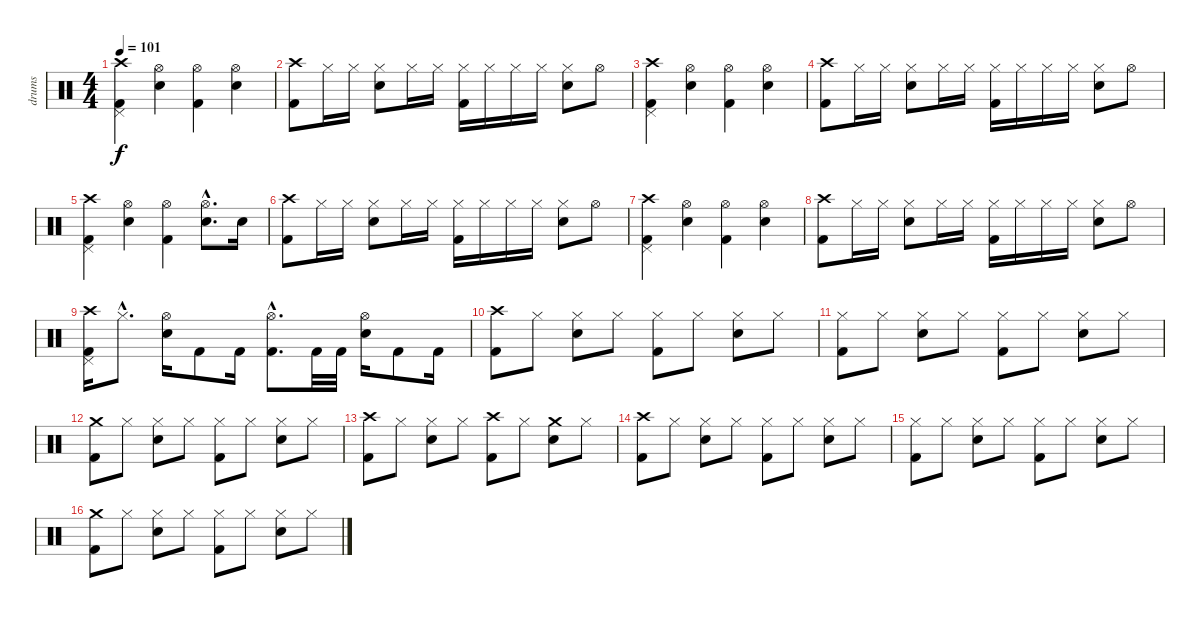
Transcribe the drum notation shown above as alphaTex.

\track ("drums" "drums") {instrument percussion}
\staff {score}
\articulation defaults
\ts (4 4)
\tempo 101
\clef neutral
\ks c
("Crash high (hit)" "Pedal Hi-Hat (hit)" "Kick (hit) 2").4{dy f} ("Hi-Hat (open)" "Electric Snare (hit)").4 ("Hi-Hat (open)" "Kick (hit) 2").4 ("Hi-Hat (open)" "Electric Snare (hit)").4 |
("Crash high (hit)" "Kick (hit) 2").8 "Hi-Hat (closed)".16 "Hi-Hat (closed)".16 ("Hi-Hat (closed)" "Electric Snare (hit)").8 "Hi-Hat (closed)".16 "Hi-Hat (closed)".16 ("Hi-Hat (closed)" "Kick (hit) 2").16 "Hi-Hat (closed)".16 "Hi-Hat (closed)".16 "Hi-Hat (closed)".16 ("Hi-Hat (closed)" "Electric Snare (hit)").8 "Hi-Hat (open)".8 |
("Crash high (hit)" "Pedal Hi-Hat (hit)" "Kick (hit) 2").4 ("Hi-Hat (open)" "Electric Snare (hit)").4 ("Hi-Hat (open)" "Kick (hit) 2").4 ("Hi-Hat (open)" "Electric Snare (hit)").4 |
("Crash high (hit)" "Kick (hit) 2").8 "Hi-Hat (closed)".16 "Hi-Hat (closed)".16 ("Hi-Hat (closed)" "Electric Snare (hit)").8 "Hi-Hat (closed)".16 "Hi-Hat (closed)".16 ("Hi-Hat (closed)" "Kick (hit) 2").16 "Hi-Hat (closed)".16 "Hi-Hat (closed)".16 "Hi-Hat (closed)".16 ("Hi-Hat (closed)" "Electric Snare (hit)").8 "Hi-Hat (open)".8 |
("Crash high (hit)" "Pedal Hi-Hat (hit)" "Kick (hit) 2").4 ("Hi-Hat (open)" "Electric Snare (hit)").4 ("Hi-Hat (open)" "Kick (hit) 2").4 ("Hi-Hat (open)"{hac} "Electric Snare (hit)"{hac}).8{d} "Electric Snare (hit)".16 |
("Crash high (hit)" "Kick (hit) 2").8 "Hi-Hat (closed)".16 "Hi-Hat (closed)".16 ("Hi-Hat (closed)" "Electric Snare (hit)").8 "Hi-Hat (closed)".16 "Hi-Hat (closed)".16 ("Hi-Hat (closed)" "Kick (hit) 2").16 "Hi-Hat (closed)".16 "Hi-Hat (closed)".16 "Hi-Hat (closed)".16 ("Hi-Hat (closed)" "Electric Snare (hit)").8 "Hi-Hat (open)".8 |
("Crash high (hit)" "Pedal Hi-Hat (hit)" "Kick (hit) 2").4 ("Hi-Hat (open)" "Electric Snare (hit)").4 ("Hi-Hat (open)" "Kick (hit) 2").4 ("Hi-Hat (open)" "Electric Snare (hit)").4 |
("Crash high (hit)" "Kick (hit) 2").8 "Hi-Hat (closed)".16 "Hi-Hat (closed)".16 ("Hi-Hat (closed)" "Electric Snare (hit)").8 "Hi-Hat (closed)".16 "Hi-Hat (closed)".16 ("Hi-Hat (closed)" "Kick (hit) 2").16 "Hi-Hat (closed)".16 "Hi-Hat (closed)".16 "Hi-Hat (closed)".16 ("Hi-Hat (closed)" "Electric Snare (hit)").8 "Hi-Hat (open)".8 |
("Crash high (hit)" "Pedal Hi-Hat (hit)" "Kick (hit) 2").16 "Hi-Hat (closed)"{hac}.8{d} ("Hi-Hat (open)" "Electric Snare (hit)").16 "Kick (hit) 2".8 "Kick (hit) 2".16 ("Hi-Hat (open)"{hac} "Kick (hit) 2"{hac}).8{d} "Kick (hit) 2".32 "Kick (hit) 2".32 ("Hi-Hat (open)" "Electric Snare (hit)").16 "Kick (hit) 2".8 "Kick (hit) 2".16 |
("Crash high (hit)" "Kick (hit) 2").8 "Hi-Hat (closed)".8 ("Hi-Hat (closed)" "Electric Snare (hit)").8 "Hi-Hat (closed)".8 ("Hi-Hat (closed)" "Kick (hit) 2").8 "Hi-Hat (closed)".8 ("Hi-Hat (closed)" "Electric Snare (hit)").8 "Hi-Hat (closed)".8 |
("Hi-Hat (closed)" "Kick (hit) 2").8 "Hi-Hat (closed)".8 ("Hi-Hat (closed)" "Electric Snare (hit)").8 "Hi-Hat (closed)".8 ("Hi-Hat (closed)" "Kick (hit) 2").8 "Hi-Hat (closed)".8 ("Hi-Hat (closed)" "Electric Snare (hit)").8 "Hi-Hat (closed)".8 |
("Crash medium (hit)" "Kick (hit) 2").8 "Hi-Hat (closed)".8 ("Hi-Hat (closed)" "Electric Snare (hit)").8 "Hi-Hat (closed)".8 ("Hi-Hat (closed)" "Kick (hit) 2").8 "Hi-Hat (closed)".8 ("Hi-Hat (closed)" "Electric Snare (hit)").8 "Hi-Hat (closed)".8 |
("Crash high (hit)" "Kick (hit) 2").8 "Hi-Hat (closed)".8 ("Hi-Hat (closed)" "Electric Snare (hit)").8 "Hi-Hat (closed)".8 ("Crash high (hit)" "Kick (hit) 2").8 "Hi-Hat (closed)".8 ("Crash medium (hit)" "Electric Snare (hit)").8 "Hi-Hat (closed)".8 |
("Crash high (hit)" "Kick (hit) 2").8 "Hi-Hat (closed)".8 ("Hi-Hat (closed)" "Electric Snare (hit)").8 "Hi-Hat (closed)".8 ("Hi-Hat (closed)" "Kick (hit) 2").8 "Hi-Hat (closed)".8 ("Hi-Hat (closed)" "Electric Snare (hit)").8 "Hi-Hat (closed)".8 |
("Hi-Hat (closed)" "Kick (hit) 2").8 "Hi-Hat (closed)".8 ("Hi-Hat (closed)" "Electric Snare (hit)").8 "Hi-Hat (closed)".8 ("Hi-Hat (closed)" "Kick (hit) 2").8 "Hi-Hat (closed)".8 ("Hi-Hat (closed)" "Electric Snare (hit)").8 "Hi-Hat (closed)".8 |
("Crash medium (hit)" "Kick (hit) 2").8 "Hi-Hat (closed)".8 ("Hi-Hat (closed)" "Electric Snare (hit)").8 "Hi-Hat (closed)".8 ("Hi-Hat (closed)" "Kick (hit) 2").8 "Hi-Hat (closed)".8 ("Hi-Hat (closed)" "Electric Snare (hit)").8 "Hi-Hat (closed)".8
